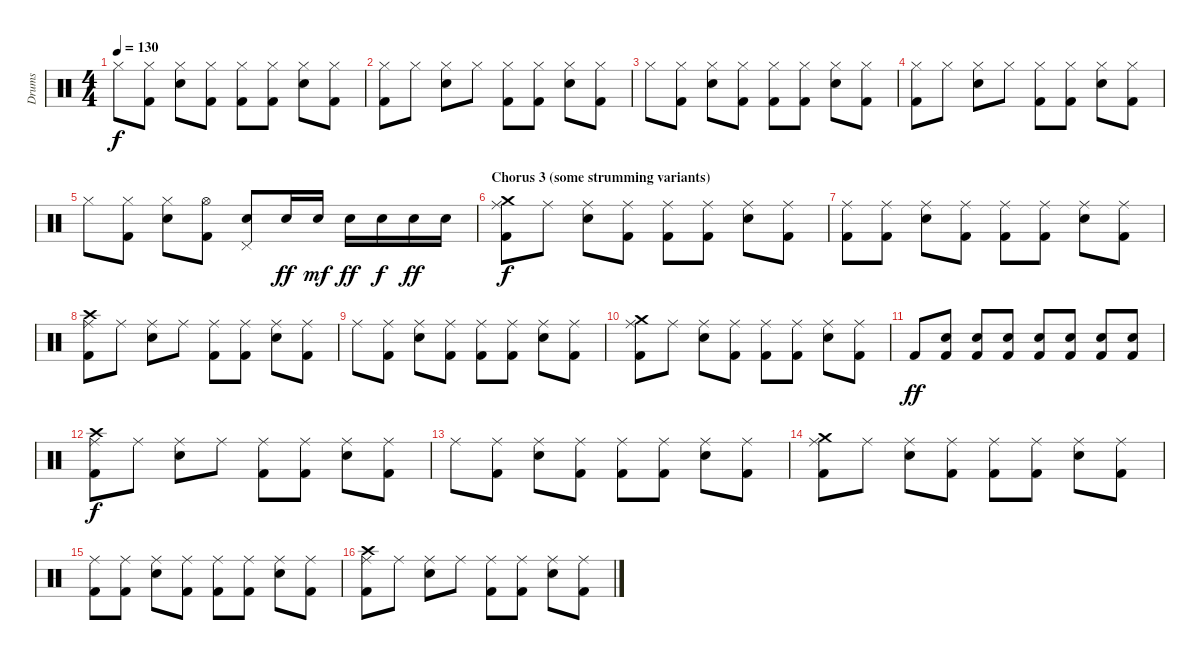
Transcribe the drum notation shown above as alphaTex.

\track ("Drums" "Drums") {instrument percussion}
\staff {score}
\articulation defaults
\ts (4 4)
\tempo 130
\clef neutral
\ks c "Hi-Hat (closed)".8{dy f}
("Hi-Hat (closed)" "Kick (hit) 2").8 ("Hi-Hat (closed)" "Electric Snare (hit)").8 ("Hi-Hat (closed)" "Kick (hit) 2").8 ("Hi-Hat (closed)" "Kick (hit) 2").8 ("Hi-Hat (closed)" "Kick (hit) 2").8 ("Hi-Hat (closed)" "Electric Snare (hit)").8 ("Hi-Hat (closed)" "Kick (hit) 2").8 |
("Hi-Hat (closed)" "Kick (hit) 2").8 "Hi-Hat (closed)".8 ("Hi-Hat (closed)" "Electric Snare (hit)").8 "Hi-Hat (closed)".8 ("Hi-Hat (closed)" "Kick (hit) 2").8 ("Hi-Hat (closed)" "Kick (hit) 2").8 ("Hi-Hat (closed)" "Electric Snare (hit)").8 ("Hi-Hat (closed)" "Kick (hit) 2").8 |
"Hi-Hat (closed)".8 ("Hi-Hat (closed)" "Kick (hit) 2").8 ("Hi-Hat (closed)" "Electric Snare (hit)").8 ("Hi-Hat (closed)" "Kick (hit) 2").8 ("Hi-Hat (closed)" "Kick (hit) 2").8 ("Hi-Hat (closed)" "Kick (hit) 2").8 ("Hi-Hat (closed)" "Electric Snare (hit)").8 ("Hi-Hat (closed)" "Kick (hit) 2").8 |
("Hi-Hat (closed)" "Kick (hit) 2").8 "Hi-Hat (closed)".8 ("Hi-Hat (closed)" "Electric Snare (hit)").8 "Hi-Hat (closed)".8 ("Hi-Hat (closed)" "Kick (hit) 2").8 ("Hi-Hat (closed)" "Kick (hit) 2").8 ("Hi-Hat (closed)" "Electric Snare (hit)").8 ("Hi-Hat (closed)" "Kick (hit) 2").8 |
"Hi-Hat (closed)".8 ("Hi-Hat (closed)" "Kick (hit) 2").8 ("Hi-Hat (closed)" "Electric Snare (hit)").8 ("Hi-Hat (open)" "Kick (hit) 2").8 ("Pedal Hi-Hat (hit)" "Electric Snare (hit)").8 "Electric Snare (hit)".16{dy ff} "Electric Snare (hit)".16{dy mf} "Electric Snare (hit)".16{dy ff} "Electric Snare (hit)".16{dy f} "Electric Snare (hit)".16{dy ff} "Electric Snare (hit)".16 |
\section ("" "Chorus 3 (some strumming variants)")
("Ride (middle)" "Crash medium (hit)" "Kick (hit) 2").8{dy f} "Ride (middle)".8 ("Ride (middle)" "Electric Snare (hit)").8 ("Ride (middle)" "Kick (hit) 2").8 ("Ride (middle)" "Kick (hit) 2").8 ("Ride (middle)" "Kick (hit) 2").8 ("Ride (middle)" "Electric Snare (hit)").8 ("Ride (middle)" "Kick (hit) 2").8 |
("Ride (middle)" "Kick (hit) 2").8 ("Ride (middle)" "Kick (hit) 2").8 ("Ride (middle)" "Electric Snare (hit)").8 ("Ride (middle)" "Kick (hit) 2").8 ("Ride (middle)" "Kick (hit) 2").8 ("Ride (middle)" "Kick (hit) 2").8 ("Ride (middle)" "Electric Snare (hit)").8 ("Ride (middle)" "Kick (hit) 2").8 |
("Ride (middle)" "Crash high (hit)" "Kick (hit) 2").8 "Ride (middle)".8 ("Ride (middle)" "Electric Snare (hit)").8 "Ride (middle)".8 ("Ride (middle)" "Kick (hit) 2").8 ("Ride (middle)" "Kick (hit) 2").8 ("Ride (middle)" "Electric Snare (hit)").8 ("Ride (middle)" "Kick (hit) 2").8 |
"Ride (middle)".8 ("Ride (middle)" "Kick (hit) 2").8 ("Ride (middle)" "Electric Snare (hit)").8 ("Ride (middle)" "Kick (hit) 2").8 ("Ride (middle)" "Kick (hit) 2").8 ("Ride (middle)" "Kick (hit) 2").8 ("Ride (middle)" "Electric Snare (hit)").8 ("Ride (middle)" "Kick (hit) 2").8 |
("Ride (middle)" "Crash medium (hit)" "Kick (hit) 2").8 "Ride (middle)".8 ("Ride (middle)" "Electric Snare (hit)").8 ("Ride (middle)" "Kick (hit) 2").8 ("Ride (middle)" "Kick (hit) 2").8 ("Ride (middle)" "Kick (hit) 2").8 ("Ride (middle)" "Electric Snare (hit)").8 ("Ride (middle)" "Kick (hit) 2").8 |
"Kick (hit) 2".8{dy ff} ("Electric Snare (hit)" "Kick (hit) 2").8 ("Electric Snare (hit)" "Kick (hit) 2").8 ("Electric Snare (hit)" "Kick (hit) 2").8 ("Electric Snare (hit)" "Kick (hit) 2").8 ("Electric Snare (hit)" "Kick (hit) 2").8 ("Electric Snare (hit)" "Kick (hit) 2").8 ("Electric Snare (hit)" "Kick (hit) 2").8 |
("Ride (middle)" "Crash high (hit)" "Kick (hit) 2").8{dy f} "Ride (middle)".8 ("Ride (middle)" "Electric Snare (hit)").8 "Ride (middle)".8 ("Ride (middle)" "Kick (hit) 2").8 ("Ride (middle)" "Kick (hit) 2").8 ("Ride (middle)" "Electric Snare (hit)").8 ("Ride (middle)" "Kick (hit) 2").8 |
"Ride (middle)".8 ("Ride (middle)" "Kick (hit) 2").8 ("Ride (middle)" "Electric Snare (hit)").8 ("Ride (middle)" "Kick (hit) 2").8 ("Ride (middle)" "Kick (hit) 2").8 ("Ride (middle)" "Kick (hit) 2").8 ("Ride (middle)" "Electric Snare (hit)").8 ("Ride (middle)" "Kick (hit) 2").8 |
("Ride (middle)" "Crash medium (hit)" "Kick (hit) 2").8 "Ride (middle)".8 ("Ride (middle)" "Electric Snare (hit)").8 ("Ride (middle)" "Kick (hit) 2").8 ("Ride (middle)" "Kick (hit) 2").8 ("Ride (middle)" "Kick (hit) 2").8 ("Ride (middle)" "Electric Snare (hit)").8 ("Ride (middle)" "Kick (hit) 2").8 |
("Ride (middle)" "Kick (hit) 2").8 ("Ride (middle)" "Kick (hit) 2").8 ("Ride (middle)" "Electric Snare (hit)").8 ("Ride (middle)" "Kick (hit) 2").8 ("Ride (middle)" "Kick (hit) 2").8 ("Ride (middle)" "Kick (hit) 2").8 ("Ride (middle)" "Electric Snare (hit)").8 ("Ride (middle)" "Kick (hit) 2").8 |
("Ride (middle)" "Crash high (hit)" "Kick (hit) 2").8 "Ride (middle)".8 ("Ride (middle)" "Electric Snare (hit)").8 "Ride (middle)".8 ("Ride (middle)" "Kick (hit) 2").8 ("Ride (middle)" "Kick (hit) 2").8 ("Ride (middle)" "Electric Snare (hit)").8 ("Ride (middle)" "Kick (hit) 2").8
